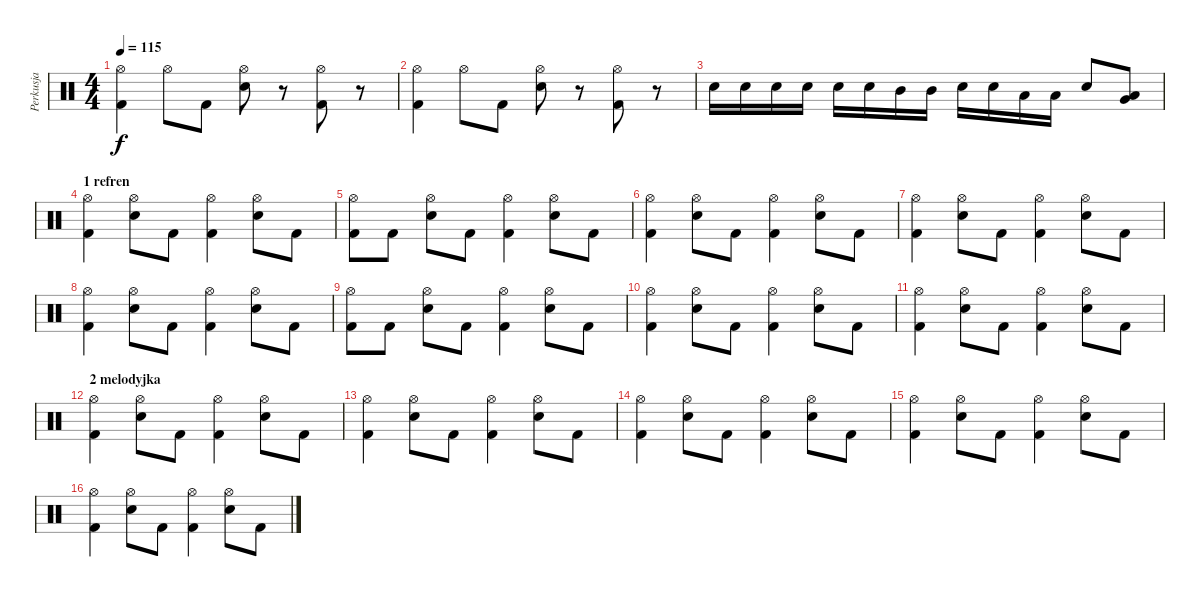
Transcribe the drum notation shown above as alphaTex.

\track ("Perkusja" "Perkusja") {instrument percussion}
\staff {score}
\articulation defaults
\ts (4 4)
\tempo 115
\clef neutral
\ks c
("Hi-Hat (open)" "Kick (hit) 2").4{dy f} "Hi-Hat (open)".8 "Kick (hit) 2".8 ("Hi-Hat (open)" "Snare (hit) 2").8 r.8 ("Hi-Hat (open)" "Kick (hit) 2").8 r.8 |
("Hi-Hat (open)" "Kick (hit) 2").4 "Hi-Hat (open)".8 "Kick (hit) 2".8 ("Hi-Hat (open)" "Snare (hit) 2").8 r.8 ("Hi-Hat (open)" "Kick (hit) 2").8 r.8 |
"Snare (hit) 2".16 "Snare (hit) 2".16 "Snare (hit) 2".16 "Snare (hit) 2".16 "Snare (hit) 2".16 "Snare (hit) 2".16 "Mid Tom (hit)".16 "Mid Tom (hit)".16 "Snare (hit) 2".16 "Snare (hit) 2".16 "Low Tom (hit)".16 "Low Tom (hit)".16 "Snare (hit) 2".8 ("Very Low Tom (hit)" "Low Tom (hit)").8 |
\section ("" "1 refren")
("Hi-Hat (open)" "Kick (hit) 2").4 ("Hi-Hat (open)" "Snare (hit) 2").8 "Kick (hit) 2".8 ("Hi-Hat (open)" "Kick (hit) 2").4 ("Hi-Hat (open)" "Snare (hit) 2").8 "Kick (hit) 2".8 |
("Hi-Hat (open)" "Kick (hit) 2").8 "Kick (hit) 2".8 ("Hi-Hat (open)" "Snare (hit) 2").8 "Kick (hit) 2".8 ("Hi-Hat (open)" "Kick (hit) 2").4 ("Hi-Hat (open)" "Snare (hit) 2").8 "Kick (hit) 2".8 |
("Hi-Hat (open)" "Kick (hit) 2").4 ("Hi-Hat (open)" "Snare (hit) 2").8 "Kick (hit) 2".8 ("Hi-Hat (open)" "Kick (hit) 2").4 ("Hi-Hat (open)" "Snare (hit) 2").8 "Kick (hit) 2".8 |
("Hi-Hat (open)" "Kick (hit) 2").4 ("Hi-Hat (open)" "Snare (hit) 2").8 "Kick (hit) 2".8 ("Hi-Hat (open)" "Kick (hit) 2").4 ("Hi-Hat (open)" "Snare (hit) 2").8 "Kick (hit) 2".8 |
("Hi-Hat (open)" "Kick (hit) 2").4 ("Hi-Hat (open)" "Snare (hit) 2").8 "Kick (hit) 2".8 ("Hi-Hat (open)" "Kick (hit) 2").4 ("Hi-Hat (open)" "Snare (hit) 2").8 "Kick (hit) 2".8 |
("Hi-Hat (open)" "Kick (hit) 2").8 "Kick (hit) 2".8 ("Hi-Hat (open)" "Snare (hit) 2").8 "Kick (hit) 2".8 ("Hi-Hat (open)" "Kick (hit) 2").4 ("Hi-Hat (open)" "Snare (hit) 2").8 "Kick (hit) 2".8 |
("Hi-Hat (open)" "Kick (hit) 2").4 ("Hi-Hat (open)" "Snare (hit) 2").8 "Kick (hit) 2".8 ("Hi-Hat (open)" "Kick (hit) 2").4 ("Hi-Hat (open)" "Snare (hit) 2").8 "Kick (hit) 2".8 |
("Hi-Hat (open)" "Kick (hit) 2").4 ("Hi-Hat (open)" "Snare (hit) 2").8 "Kick (hit) 2".8 ("Hi-Hat (open)" "Kick (hit) 2").4 ("Hi-Hat (open)" "Snare (hit) 2").8 "Kick (hit) 2".8 |
\section ("" "2 melodyjka")
("Hi-Hat (open)" "Kick (hit) 2").4 ("Hi-Hat (open)" "Snare (hit) 2").8 "Kick (hit) 2".8 ("Hi-Hat (open)" "Kick (hit) 2").4 ("Hi-Hat (open)" "Snare (hit) 2").8 "Kick (hit) 2".8 |
("Hi-Hat (open)" "Kick (hit) 2").4 ("Hi-Hat (open)" "Snare (hit) 2").8 "Kick (hit) 2".8 ("Hi-Hat (open)" "Kick (hit) 2").4 ("Hi-Hat (open)" "Snare (hit) 2").8 "Kick (hit) 2".8 |
("Hi-Hat (open)" "Kick (hit) 2").4 ("Hi-Hat (open)" "Snare (hit) 2").8 "Kick (hit) 2".8 ("Hi-Hat (open)" "Kick (hit) 2").4 ("Hi-Hat (open)" "Snare (hit) 2").8 "Kick (hit) 2".8 |
("Hi-Hat (open)" "Kick (hit) 2").4 ("Hi-Hat (open)" "Snare (hit) 2").8 "Kick (hit) 2".8 ("Hi-Hat (open)" "Kick (hit) 2").4 ("Hi-Hat (open)" "Snare (hit) 2").8 "Kick (hit) 2".8 |
("Hi-Hat (open)" "Kick (hit) 2").4 ("Hi-Hat (open)" "Snare (hit) 2").8 "Kick (hit) 2".8 ("Hi-Hat (open)" "Kick (hit) 2").4 ("Hi-Hat (open)" "Snare (hit) 2").8 "Kick (hit) 2".8
